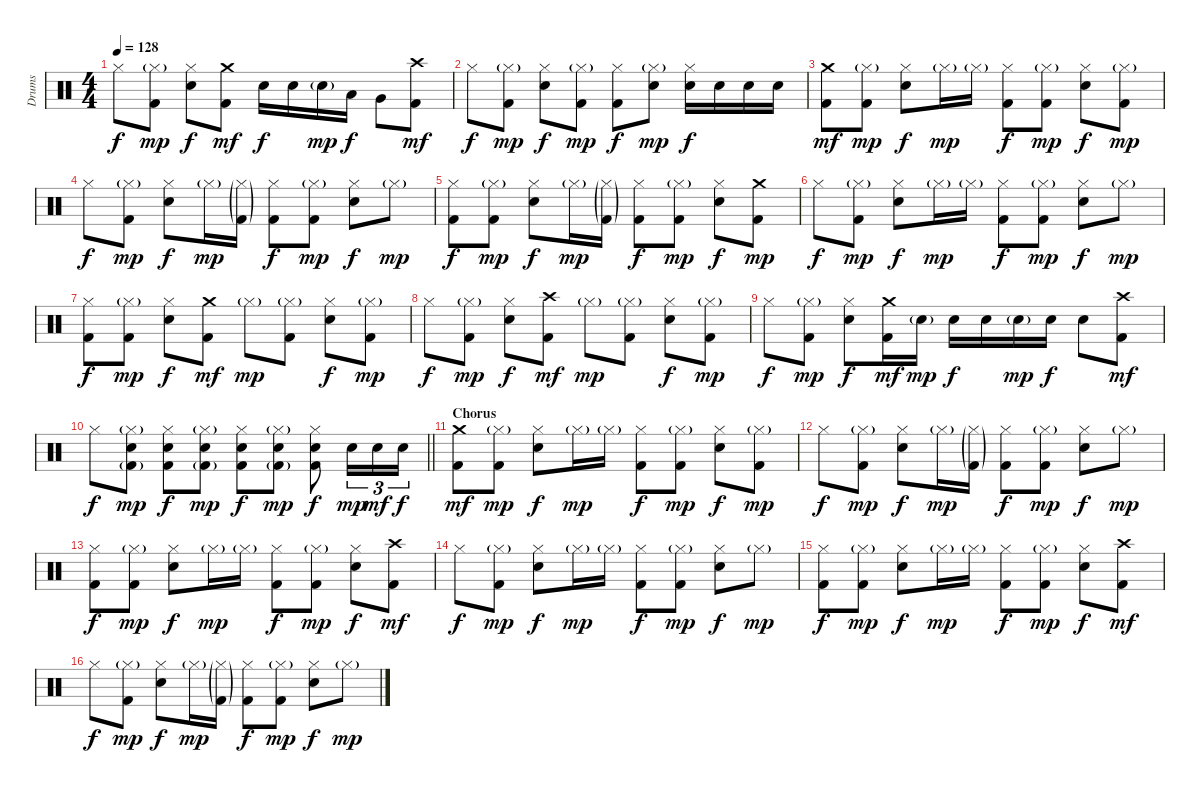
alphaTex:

\track ("Drums" "Drums") {instrument percussion}
\staff {score}
\articulation defaults
\ts (4 4)
\tempo 128
\clef neutral
\ks c "Hi-Hat (closed)".8{dy f}
("Hi-Hat (closed)"{g} "Kick (hit) 2").8{dy mp} ("Hi-Hat (closed)" "Electric Snare (hit)").8{dy f} ("Crash medium (hit)" "Kick (hit) 2").8{dy mf} "Electric Snare (hit)".16{dy f} "Electric Snare (hit)".16 "Electric Snare (hit)"{g}.16{dy mp} "Low Tom (hit)".16{dy f} "Very Low Tom (hit)".8 ("Crash high (hit)" "Kick (hit) 2").8{dy mf} |
"Hi-Hat (closed)".8{dy f} ("Hi-Hat (closed)"{g} "Kick (hit) 2").8{dy mp} ("Hi-Hat (closed)" "Electric Snare (hit)").8{dy f} ("Hi-Hat (closed)"{g} "Kick (hit) 2").8{dy mp} ("Hi-Hat (closed)" "Kick (hit) 2").8{dy f} ("Hi-Hat (closed)"{g} "Electric Snare (hit)").8{dy mp} ("Hi-Hat (closed)" "Electric Snare (hit)").16{dy f} "Electric Snare (hit)".16 "Electric Snare (hit)".16 "Electric Snare (hit)".16 |
("Crash medium (hit)" "Kick (hit) 2").8{dy mf} ("Hi-Hat (closed)"{g} "Kick (hit) 2").8{dy mp} ("Hi-Hat (closed)" "Electric Snare (hit)").8{dy f} "Hi-Hat (closed)"{g}.16{dy mp} "Hi-Hat (closed)"{g}.16 ("Hi-Hat (closed)" "Kick (hit) 2").8{dy f} ("Hi-Hat (closed)"{g} "Kick (hit) 2").8{dy mp} ("Hi-Hat (closed)" "Electric Snare (hit)").8{dy f} ("Hi-Hat (closed)"{g} "Kick (hit) 2").8{dy mp} |
"Hi-Hat (closed)".8{dy f} ("Hi-Hat (closed)"{g} "Kick (hit) 2").8{dy mp} ("Hi-Hat (closed)" "Electric Snare (hit)").8{dy f} "Hi-Hat (closed)"{g}.16{dy mp} ("Hi-Hat (closed)"{g} "Kick (hit) 2"{g}).16 ("Hi-Hat (closed)" "Kick (hit) 2").8{dy f} ("Hi-Hat (closed)"{g} "Kick (hit) 2").8{dy mp} ("Hi-Hat (closed)" "Electric Snare (hit)").8{dy f} "Hi-Hat (closed)"{g}.8{dy mp} |
("Hi-Hat (closed)" "Kick (hit) 2").8{dy f} ("Hi-Hat (closed)"{g} "Kick (hit) 2").8{dy mp} ("Hi-Hat (closed)" "Electric Snare (hit)").8{dy f} "Hi-Hat (closed)"{g}.16{dy mp} ("Hi-Hat (closed)"{g} "Kick (hit) 2"{g}).16 ("Hi-Hat (closed)" "Kick (hit) 2").8{dy f} ("Hi-Hat (closed)"{g} "Kick (hit) 2").8{dy mp} ("Hi-Hat (closed)" "Electric Snare (hit)").8{dy f} ("Crash medium (hit)" "Kick (hit) 2").8{dy mp} |
"Hi-Hat (closed)".8{dy f} ("Hi-Hat (closed)"{g} "Kick (hit) 2").8{dy mp} ("Hi-Hat (closed)" "Electric Snare (hit)").8{dy f} "Hi-Hat (closed)"{g}.16{dy mp} "Hi-Hat (closed)"{g}.16 ("Hi-Hat (closed)" "Kick (hit) 2").8{dy f} ("Hi-Hat (closed)"{g} "Kick (hit) 2").8{dy mp} ("Hi-Hat (closed)" "Electric Snare (hit)").8{dy f} "Hi-Hat (closed)"{g}.8{dy mp} |
("Hi-Hat (closed)" "Kick (hit) 2").8{dy f} ("Hi-Hat (closed)"{g} "Kick (hit) 2").8{dy mp} ("Hi-Hat (closed)" "Electric Snare (hit)").8{dy f} ("Crash medium (hit)" "Kick (hit) 2").8{dy mf} "Hi-Hat (closed)"{g}.8{dy mp} ("Hi-Hat (closed)"{g} "Kick (hit) 2").8 ("Hi-Hat (closed)" "Electric Snare (hit)").8{dy f} ("Hi-Hat (closed)"{g} "Kick (hit) 2").8{dy mp} |
"Hi-Hat (closed)".8{dy f} ("Hi-Hat (closed)"{g} "Kick (hit) 2").8{dy mp} ("Hi-Hat (closed)" "Electric Snare (hit)").8{dy f} ("Crash high (hit)" "Kick (hit) 2").8{dy mf} "Hi-Hat (closed)"{g}.8{dy mp} ("Hi-Hat (closed)"{g} "Kick (hit) 2").8 ("Hi-Hat (closed)" "Electric Snare (hit)").8{dy f} ("Hi-Hat (closed)"{g} "Kick (hit) 2").8{dy mp} |
"Hi-Hat (closed)".8{dy f} ("Hi-Hat (closed)"{g} "Kick (hit) 2").8{dy mp} ("Hi-Hat (closed)" "Electric Snare (hit)").8{dy f} ("Crash medium (hit)" "Kick (hit) 2").16{dy mf} "Electric Snare (hit)"{g}.16{dy mp} "Electric Snare (hit)".16{dy f} "Electric Snare (hit)".16 "Electric Snare (hit)"{g}.16{dy mp} "Electric Snare (hit)".16{dy f} "Electric Snare (hit)".8 ("Crash high (hit)" "Kick (hit) 2").8{dy mf} |
\barLineRight lightlight "Hi-Hat (closed)".8{dy f}
("Hi-Hat (closed)"{g} "Electric Snare (hit)" "Kick (hit) 2"{g}).8{dy mp} ("Hi-Hat (closed)" "Electric Snare (hit)" "Kick (hit) 2").8{dy f} ("Hi-Hat (closed)"{g} "Electric Snare (hit)" "Kick (hit) 2"{g}).8{dy mp} ("Hi-Hat (closed)" "Electric Snare (hit)" "Kick (hit) 2").8{dy f} ("Hi-Hat (closed)"{g} "Electric Snare (hit)" "Kick (hit) 2"{g}).8{dy mp} ("Hi-Hat (closed)" "Electric Snare (hit)" "Kick (hit) 2").8{dy f} "Electric Snare (hit)".16{tu (3 2) dy mp} "Electric Snare (hit)".16{tu (3 2) dy mf} "Electric Snare (hit)".16{tu (3 2) dy f} |
\section ("" "Chorus")
("Crash medium (hit)" "Kick (hit) 2").8{dy mf} ("Hi-Hat (closed)"{g} "Kick (hit) 2").8{dy mp} ("Hi-Hat (closed)" "Electric Snare (hit)").8{dy f} "Hi-Hat (closed)"{g}.16{dy mp} "Hi-Hat (closed)"{g}.16 ("Hi-Hat (closed)" "Kick (hit) 2").8{dy f} ("Hi-Hat (closed)"{g} "Kick (hit) 2").8{dy mp} ("Hi-Hat (closed)" "Electric Snare (hit)").8{dy f} ("Hi-Hat (closed)"{g} "Kick (hit) 2").8{dy mp} |
"Hi-Hat (closed)".8{dy f} ("Hi-Hat (closed)"{g} "Kick (hit) 2").8{dy mp} ("Hi-Hat (closed)" "Electric Snare (hit)").8{dy f} "Hi-Hat (closed)"{g}.16{dy mp} ("Hi-Hat (closed)"{g} "Kick (hit) 2"{g}).16 ("Hi-Hat (closed)" "Kick (hit) 2").8{dy f} ("Hi-Hat (closed)"{g} "Kick (hit) 2").8{dy mp} ("Hi-Hat (closed)" "Electric Snare (hit)").8{dy f} "Hi-Hat (closed)"{g}.8{dy mp} |
("Hi-Hat (closed)" "Kick (hit) 2").8{dy f} ("Hi-Hat (closed)"{g} "Kick (hit) 2").8{dy mp} ("Hi-Hat (closed)" "Electric Snare (hit)").8{dy f} "Hi-Hat (closed)"{g}.16{dy mp} "Hi-Hat (closed)"{g}.16 ("Hi-Hat (closed)" "Kick (hit) 2").8{dy f} ("Hi-Hat (closed)"{g} "Kick (hit) 2").8{dy mp} ("Hi-Hat (closed)" "Electric Snare (hit)").8{dy f} ("Crash high (hit)" "Kick (hit) 2").8{dy mf} |
"Hi-Hat (closed)".8{dy f} ("Hi-Hat (closed)"{g} "Kick (hit) 2").8{dy mp} ("Hi-Hat (closed)" "Electric Snare (hit)").8{dy f} "Hi-Hat (closed)"{g}.16{dy mp} "Hi-Hat (closed)"{g}.16 ("Hi-Hat (closed)" "Kick (hit) 2").8{dy f} ("Hi-Hat (closed)"{g} "Kick (hit) 2").8{dy mp} ("Hi-Hat (closed)" "Electric Snare (hit)").8{dy f} "Hi-Hat (closed)"{g}.8{dy mp} |
("Hi-Hat (closed)" "Kick (hit) 2").8{dy f} ("Hi-Hat (closed)"{g} "Kick (hit) 2").8{dy mp} ("Hi-Hat (closed)" "Electric Snare (hit)").8{dy f} "Hi-Hat (closed)"{g}.16{dy mp} "Hi-Hat (closed)"{g}.16 ("Hi-Hat (closed)" "Kick (hit) 2").8{dy f} ("Hi-Hat (closed)"{g} "Kick (hit) 2").8{dy mp} ("Hi-Hat (closed)" "Electric Snare (hit)").8{dy f} ("Crash high (hit)" "Kick (hit) 2").8{dy mf} |
"Hi-Hat (closed)".8{dy f} ("Hi-Hat (closed)"{g} "Kick (hit) 2").8{dy mp} ("Hi-Hat (closed)" "Electric Snare (hit)").8{dy f} "Hi-Hat (closed)"{g}.16{dy mp} ("Hi-Hat (closed)"{g} "Kick (hit) 2"{g}).16 ("Hi-Hat (closed)" "Kick (hit) 2").8{dy f} ("Hi-Hat (closed)"{g} "Kick (hit) 2").8{dy mp} ("Hi-Hat (closed)" "Electric Snare (hit)").8{dy f} "Hi-Hat (closed)"{g}.8{dy mp}
